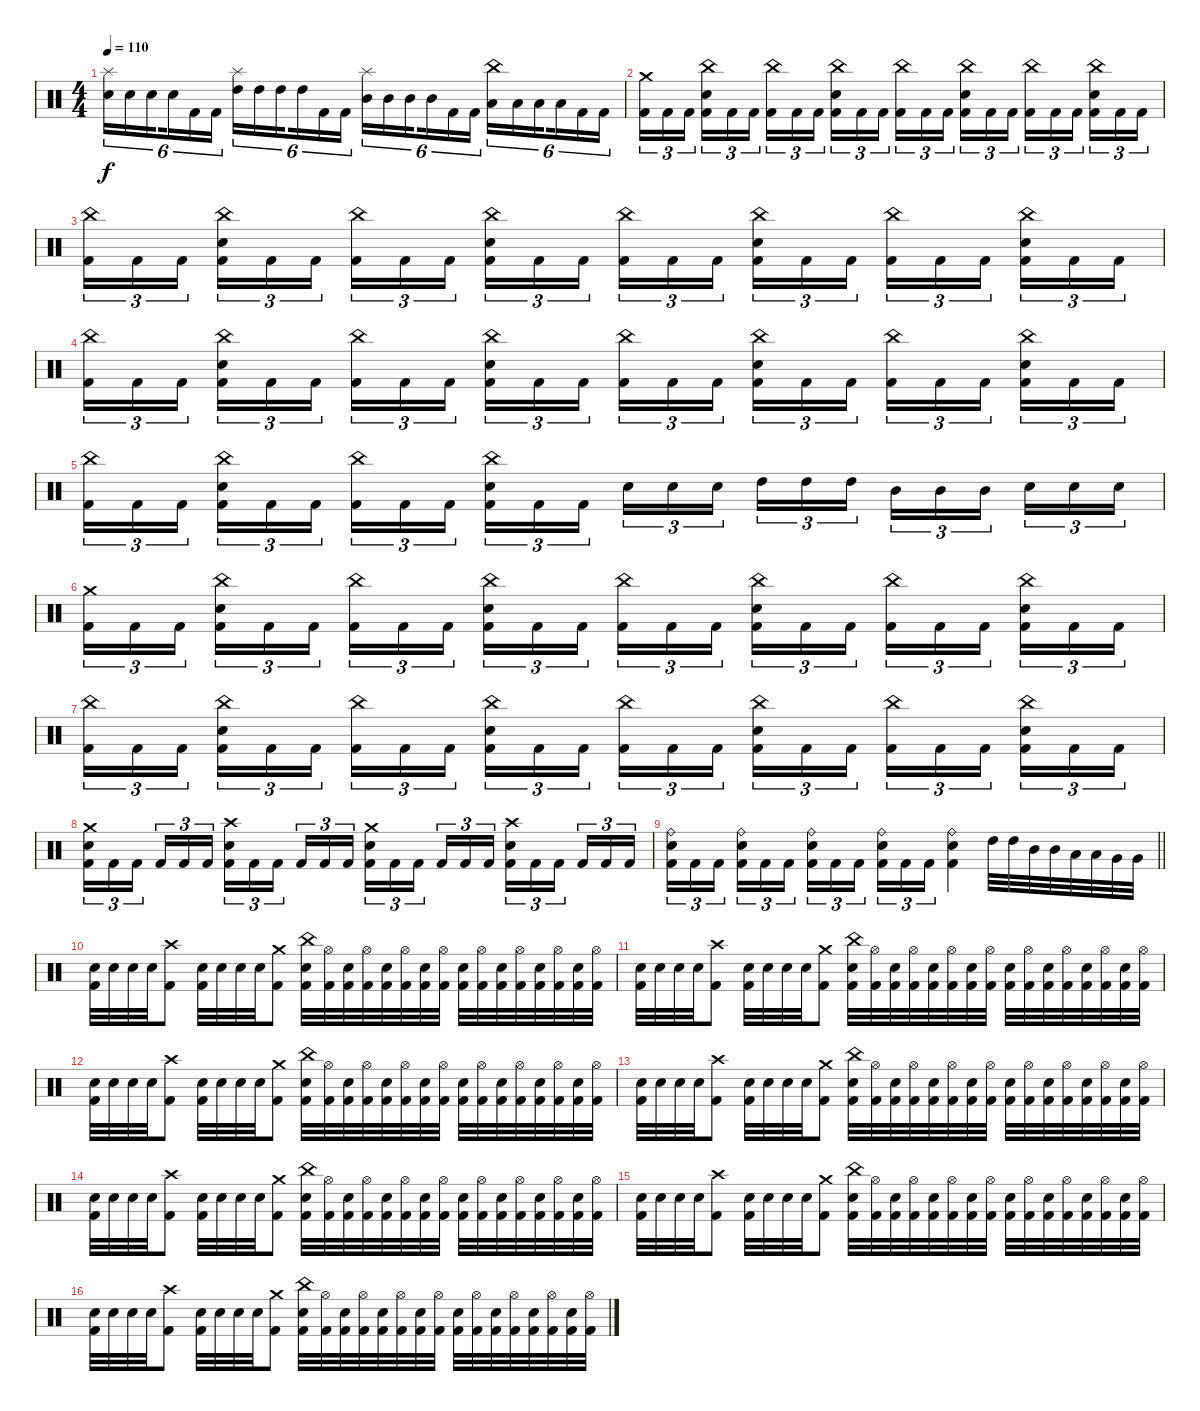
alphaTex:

\track "" {instrument percussion}
\staff {score}
\articulation defaults
\ts (4 4)
\tempo 110
\clef neutral
\ks c
("Electric Snare (hit)" "Splash (hit)").16{tu (6 4) dy f} "Electric Snare (hit)".16{tu (6 4)} "Electric Snare (hit)".16{tu (6 4) beam splitsecondary} "Electric Snare (hit)".16{tu (6 4)} "Kick (hit) 2".16{tu (6 4)} "Kick (hit) 2".16{tu (6 4)} ("High Tom (hit)" "Splash (hit)").16{tu (6 4)} "High Tom (hit)".16{tu (6 4)} "High Tom (hit)".16{tu (6 4) beam splitsecondary} "High Tom (hit)".16{tu (6 4)} "Kick (hit) 2".16{tu (6 4)} "Kick (hit) 2".16{tu (6 4)} ("Mid Tom (hit)" "Splash (hit)").16{tu (6 4)} "Mid Tom (hit)".16{tu (6 4)} "Mid Tom (hit)".16{tu (6 4) beam splitsecondary} "Mid Tom (hit)".16{tu (6 4)} "Kick (hit) 2".16{tu (6 4)} "Kick (hit) 2".16{tu (6 4)} ("Low Tom (hit)" "China (hit)").16{tu (6 4)} "Low Tom (hit)".16{tu (6 4)} "Low Tom (hit)".16{tu (6 4) beam splitsecondary} "Low Tom (hit)".16{tu (6 4)} "Kick (hit) 2".16{tu (6 4)} "Kick (hit) 2".16{tu (6 4)} |
("Crash medium (hit)" "Kick (hit) 2").16{tu (3 2)} "Kick (hit) 2".16{tu (3 2)} "Kick (hit) 2".16{tu (3 2) beam splitsecondary} ("China (hit)" "Electric Snare (hit)" "Kick (hit) 2").16{tu (3 2)} "Kick (hit) 2".16{tu (3 2)} "Kick (hit) 2".16{tu (3 2)} ("China (hit)" "Kick (hit) 2").16{tu (3 2)} "Kick (hit) 2".16{tu (3 2)} "Kick (hit) 2".16{tu (3 2) beam splitsecondary} ("China (hit)" "Electric Snare (hit)" "Kick (hit) 2").16{tu (3 2)} "Kick (hit) 2".16{tu (3 2)} "Kick (hit) 2".16{tu (3 2)} ("China (hit)" "Kick (hit) 2").16{tu (3 2)} "Kick (hit) 2".16{tu (3 2)} "Kick (hit) 2".16{tu (3 2) beam splitsecondary} ("China (hit)" "Electric Snare (hit)" "Kick (hit) 2").16{tu (3 2)} "Kick (hit) 2".16{tu (3 2)} "Kick (hit) 2".16{tu (3 2)} ("China (hit)" "Kick (hit) 2").16{tu (3 2)} "Kick (hit) 2".16{tu (3 2)} "Kick (hit) 2".16{tu (3 2) beam splitsecondary} ("China (hit)" "Electric Snare (hit)" "Kick (hit) 2").16{tu (3 2)} "Kick (hit) 2".16{tu (3 2)} "Kick (hit) 2".16{tu (3 2)} |
("China (hit)" "Kick (hit) 2").16{tu (3 2)} "Kick (hit) 2".16{tu (3 2)} "Kick (hit) 2".16{tu (3 2) beam splitsecondary} ("China (hit)" "Electric Snare (hit)" "Kick (hit) 2").16{tu (3 2)} "Kick (hit) 2".16{tu (3 2)} "Kick (hit) 2".16{tu (3 2)} ("China (hit)" "Kick (hit) 2").16{tu (3 2)} "Kick (hit) 2".16{tu (3 2)} "Kick (hit) 2".16{tu (3 2) beam splitsecondary} ("China (hit)" "Electric Snare (hit)" "Kick (hit) 2").16{tu (3 2)} "Kick (hit) 2".16{tu (3 2)} "Kick (hit) 2".16{tu (3 2)} ("China (hit)" "Kick (hit) 2").16{tu (3 2)} "Kick (hit) 2".16{tu (3 2)} "Kick (hit) 2".16{tu (3 2) beam splitsecondary} ("China (hit)" "Electric Snare (hit)" "Kick (hit) 2").16{tu (3 2)} "Kick (hit) 2".16{tu (3 2)} "Kick (hit) 2".16{tu (3 2)} ("China (hit)" "Kick (hit) 2").16{tu (3 2)} "Kick (hit) 2".16{tu (3 2)} "Kick (hit) 2".16{tu (3 2) beam splitsecondary} ("China (hit)" "Electric Snare (hit)" "Kick (hit) 2").16{tu (3 2)} "Kick (hit) 2".16{tu (3 2)} "Kick (hit) 2".16{tu (3 2)} |
("China (hit)" "Kick (hit) 2").16{tu (3 2)} "Kick (hit) 2".16{tu (3 2)} "Kick (hit) 2".16{tu (3 2) beam splitsecondary} ("China (hit)" "Electric Snare (hit)" "Kick (hit) 2").16{tu (3 2)} "Kick (hit) 2".16{tu (3 2)} "Kick (hit) 2".16{tu (3 2)} ("China (hit)" "Kick (hit) 2").16{tu (3 2)} "Kick (hit) 2".16{tu (3 2)} "Kick (hit) 2".16{tu (3 2) beam splitsecondary} ("China (hit)" "Electric Snare (hit)" "Kick (hit) 2").16{tu (3 2)} "Kick (hit) 2".16{tu (3 2)} "Kick (hit) 2".16{tu (3 2)} ("China (hit)" "Kick (hit) 2").16{tu (3 2)} "Kick (hit) 2".16{tu (3 2)} "Kick (hit) 2".16{tu (3 2) beam splitsecondary} ("China (hit)" "Electric Snare (hit)" "Kick (hit) 2").16{tu (3 2)} "Kick (hit) 2".16{tu (3 2)} "Kick (hit) 2".16{tu (3 2)} ("China (hit)" "Kick (hit) 2").16{tu (3 2)} "Kick (hit) 2".16{tu (3 2)} "Kick (hit) 2".16{tu (3 2) beam splitsecondary} ("China (hit)" "Electric Snare (hit)" "Kick (hit) 2").16{tu (3 2)} "Kick (hit) 2".16{tu (3 2)} "Kick (hit) 2".16{tu (3 2)} |
("China (hit)" "Kick (hit) 2").16{tu (3 2)} "Kick (hit) 2".16{tu (3 2)} "Kick (hit) 2".16{tu (3 2) beam splitsecondary} ("China (hit)" "Electric Snare (hit)" "Kick (hit) 2").16{tu (3 2)} "Kick (hit) 2".16{tu (3 2)} "Kick (hit) 2".16{tu (3 2)} ("China (hit)" "Kick (hit) 2").16{tu (3 2)} "Kick (hit) 2".16{tu (3 2)} "Kick (hit) 2".16{tu (3 2) beam splitsecondary} ("China (hit)" "Electric Snare (hit)" "Kick (hit) 2").16{tu (3 2)} "Kick (hit) 2".16{tu (3 2)} "Kick (hit) 2".16{tu (3 2)} "Electric Snare (hit)".16{tu (3 2)} "Electric Snare (hit)".16{tu (3 2)} "Electric Snare (hit)".16{tu (3 2) beam splitsecondary} "High Tom (hit)".16{tu (3 2)} "High Tom (hit)".16{tu (3 2)} "High Tom (hit)".16{tu (3 2)} "Mid Tom (hit)".16{tu (3 2)} "Mid Tom (hit)".16{tu (3 2)} "Mid Tom (hit)".16{tu (3 2) beam splitsecondary} "Electric Snare (hit)".16{tu (3 2)} "Electric Snare (hit)".16{tu (3 2)} "Electric Snare (hit)".16{tu (3 2)} |
("Crash medium (hit)" "Kick (hit) 2").16{tu (3 2)} "Kick (hit) 2".16{tu (3 2)} "Kick (hit) 2".16{tu (3 2) beam splitsecondary} ("China (hit)" "Electric Snare (hit)" "Kick (hit) 2").16{tu (3 2)} "Kick (hit) 2".16{tu (3 2)} "Kick (hit) 2".16{tu (3 2)} ("China (hit)" "Kick (hit) 2").16{tu (3 2)} "Kick (hit) 2".16{tu (3 2)} "Kick (hit) 2".16{tu (3 2) beam splitsecondary} ("China (hit)" "Electric Snare (hit)" "Kick (hit) 2").16{tu (3 2)} "Kick (hit) 2".16{tu (3 2)} "Kick (hit) 2".16{tu (3 2)} ("China (hit)" "Kick (hit) 2").16{tu (3 2)} "Kick (hit) 2".16{tu (3 2)} "Kick (hit) 2".16{tu (3 2) beam splitsecondary} ("China (hit)" "Electric Snare (hit)" "Kick (hit) 2").16{tu (3 2)} "Kick (hit) 2".16{tu (3 2)} "Kick (hit) 2".16{tu (3 2)} ("China (hit)" "Kick (hit) 2").16{tu (3 2)} "Kick (hit) 2".16{tu (3 2)} "Kick (hit) 2".16{tu (3 2) beam splitsecondary} ("China (hit)" "Electric Snare (hit)" "Kick (hit) 2").16{tu (3 2)} "Kick (hit) 2".16{tu (3 2)} "Kick (hit) 2".16{tu (3 2)} |
("China (hit)" "Kick (hit) 2").16{tu (3 2)} "Kick (hit) 2".16{tu (3 2)} "Kick (hit) 2".16{tu (3 2) beam splitsecondary} ("China (hit)" "Electric Snare (hit)" "Kick (hit) 2").16{tu (3 2)} "Kick (hit) 2".16{tu (3 2)} "Kick (hit) 2".16{tu (3 2)} ("China (hit)" "Kick (hit) 2").16{tu (3 2)} "Kick (hit) 2".16{tu (3 2)} "Kick (hit) 2".16{tu (3 2) beam splitsecondary} ("China (hit)" "Electric Snare (hit)" "Kick (hit) 2").16{tu (3 2)} "Kick (hit) 2".16{tu (3 2)} "Kick (hit) 2".16{tu (3 2)} ("China (hit)" "Kick (hit) 2").16{tu (3 2)} "Kick (hit) 2".16{tu (3 2)} "Kick (hit) 2".16{tu (3 2) beam splitsecondary} ("China (hit)" "Electric Snare (hit)" "Kick (hit) 2").16{tu (3 2)} "Kick (hit) 2".16{tu (3 2)} "Kick (hit) 2".16{tu (3 2)} ("China (hit)" "Kick (hit) 2").16{tu (3 2)} "Kick (hit) 2".16{tu (3 2)} "Kick (hit) 2".16{tu (3 2) beam splitsecondary} ("China (hit)" "Electric Snare (hit)" "Kick (hit) 2").16{tu (3 2)} "Kick (hit) 2".16{tu (3 2)} "Kick (hit) 2".16{tu (3 2)} |
("Crash medium (hit)" "Electric Snare (hit)" "Kick (hit) 2").16{tu (3 2)} "Kick (hit) 2".16{tu (3 2)} "Kick (hit) 2".16{tu (3 2) beam splitsecondary} "Kick (hit) 2".16{tu (3 2)} "Kick (hit) 2".16{tu (3 2)} "Kick (hit) 2".16{tu (3 2)} ("Crash high (hit)" "Electric Snare (hit)" "Kick (hit) 2").16{tu (3 2)} "Kick (hit) 2".16{tu (3 2)} "Kick (hit) 2".16{tu (3 2) beam splitsecondary} "Kick (hit) 2".16{tu (3 2)} "Kick (hit) 2".16{tu (3 2)} "Kick (hit) 2".16{tu (3 2)} ("Crash medium (hit)" "Electric Snare (hit)" "Kick (hit) 2").16{tu (3 2)} "Kick (hit) 2".16{tu (3 2)} "Kick (hit) 2".16{tu (3 2) beam splitsecondary} "Kick (hit) 2".16{tu (3 2)} "Kick (hit) 2".16{tu (3 2)} "Kick (hit) 2".16{tu (3 2)} ("Crash high (hit)" "Electric Snare (hit)" "Kick (hit) 2").16{tu (3 2)} "Kick (hit) 2".16{tu (3 2)} "Kick (hit) 2".16{tu (3 2) beam splitsecondary} "Kick (hit) 2".16{tu (3 2)} "Kick (hit) 2".16{tu (3 2)} "Kick (hit) 2".16{tu (3 2)} |
\barLineRight lightlight
("Ride (bell)" "Electric Snare (hit)" "Kick (hit) 2").16{tu (3 2)} "Kick (hit) 2".16{tu (3 2)} "Kick (hit) 2".16{tu (3 2) beam splitsecondary} ("Ride (bell)" "Electric Snare (hit)" "Kick (hit) 2").16{tu (3 2)} "Kick (hit) 2".16{tu (3 2)} "Kick (hit) 2".16{tu (3 2)} ("Ride (bell)" "Electric Snare (hit)" "Kick (hit) 2").16{tu (3 2)} "Kick (hit) 2".16{tu (3 2)} "Kick (hit) 2".16{tu (3 2) beam splitsecondary} ("Ride (bell)" "Electric Snare (hit)" "Kick (hit) 2").16{tu (3 2)} "Kick (hit) 2".16{tu (3 2)} "Kick (hit) 2".16{tu (3 2)} ("Ride (bell)" "Electric Snare (hit)" "Kick (hit) 2").4 "High Tom (hit)".32 "High Tom (hit)".32 "Mid Tom (hit)".32 "Mid Tom (hit)".32 "Low Tom (hit)".32 "Low Tom (hit)".32 "Very Low Tom (hit)".32 "Very Low Tom (hit)".32 |
("Electric Snare (hit)" "Kick (hit) 2").32 "Electric Snare (hit)".32 "Electric Snare (hit)".32 "Electric Snare (hit)".32 ("Crash high (hit)" "Kick (hit) 2").8 ("Electric Snare (hit)" "Kick (hit) 2").32 "Electric Snare (hit)".32 "Electric Snare (hit)".32 "Electric Snare (hit)".32 ("Crash medium (hit)" "Kick (hit) 2").8 ("China (hit)" "Electric Snare (hit)" "Kick (hit) 2").32 ("Hi-Hat (open)" "Kick (hit) 2").32 ("Electric Snare (hit)" "Kick (hit) 2").32 ("Hi-Hat (open)" "Kick (hit) 2").32 ("Electric Snare (hit)" "Kick (hit) 2").32 ("Hi-Hat (open)" "Kick (hit) 2").32 ("Electric Snare (hit)" "Kick (hit) 2").32 ("Hi-Hat (open)" "Kick (hit) 2").32 ("Electric Snare (hit)" "Kick (hit) 2").32 ("Hi-Hat (open)" "Kick (hit) 2").32 ("Electric Snare (hit)" "Kick (hit) 2").32 ("Hi-Hat (open)" "Kick (hit) 2").32 ("Electric Snare (hit)" "Kick (hit) 2").32 ("Hi-Hat (open)" "Kick (hit) 2").32 ("Electric Snare (hit)" "Kick (hit) 2").32 ("Hi-Hat (open)" "Kick (hit) 2").32 |
("Electric Snare (hit)" "Kick (hit) 2").32 "Electric Snare (hit)".32 "Electric Snare (hit)".32 "Electric Snare (hit)".32 ("Crash high (hit)" "Kick (hit) 2").8 ("Electric Snare (hit)" "Kick (hit) 2").32 "Electric Snare (hit)".32 "Electric Snare (hit)".32 "Electric Snare (hit)".32 ("Crash medium (hit)" "Kick (hit) 2").8 ("China (hit)" "Electric Snare (hit)" "Kick (hit) 2").32 ("Hi-Hat (open)" "Kick (hit) 2").32 ("Electric Snare (hit)" "Kick (hit) 2").32 ("Hi-Hat (open)" "Kick (hit) 2").32 ("Electric Snare (hit)" "Kick (hit) 2").32 ("Hi-Hat (open)" "Kick (hit) 2").32 ("Electric Snare (hit)" "Kick (hit) 2").32 ("Hi-Hat (open)" "Kick (hit) 2").32 ("Electric Snare (hit)" "Kick (hit) 2").32 ("Hi-Hat (open)" "Kick (hit) 2").32 ("Electric Snare (hit)" "Kick (hit) 2").32 ("Hi-Hat (open)" "Kick (hit) 2").32 ("Electric Snare (hit)" "Kick (hit) 2").32 ("Hi-Hat (open)" "Kick (hit) 2").32 ("Electric Snare (hit)" "Kick (hit) 2").32 ("Hi-Hat (open)" "Kick (hit) 2").32 |
("Electric Snare (hit)" "Kick (hit) 2").32 "Electric Snare (hit)".32 "Electric Snare (hit)".32 "Electric Snare (hit)".32 ("Crash high (hit)" "Kick (hit) 2").8 ("Electric Snare (hit)" "Kick (hit) 2").32 "Electric Snare (hit)".32 "Electric Snare (hit)".32 "Electric Snare (hit)".32 ("Crash medium (hit)" "Kick (hit) 2").8 ("China (hit)" "Electric Snare (hit)" "Kick (hit) 2").32 ("Hi-Hat (open)" "Kick (hit) 2").32 ("Electric Snare (hit)" "Kick (hit) 2").32 ("Hi-Hat (open)" "Kick (hit) 2").32 ("Electric Snare (hit)" "Kick (hit) 2").32 ("Hi-Hat (open)" "Kick (hit) 2").32 ("Electric Snare (hit)" "Kick (hit) 2").32 ("Hi-Hat (open)" "Kick (hit) 2").32 ("Electric Snare (hit)" "Kick (hit) 2").32 ("Hi-Hat (open)" "Kick (hit) 2").32 ("Electric Snare (hit)" "Kick (hit) 2").32 ("Hi-Hat (open)" "Kick (hit) 2").32 ("Electric Snare (hit)" "Kick (hit) 2").32 ("Hi-Hat (open)" "Kick (hit) 2").32 ("Electric Snare (hit)" "Kick (hit) 2").32 ("Hi-Hat (open)" "Kick (hit) 2").32 |
("Electric Snare (hit)" "Kick (hit) 2").32 "Electric Snare (hit)".32 "Electric Snare (hit)".32 "Electric Snare (hit)".32 ("Crash high (hit)" "Kick (hit) 2").8 ("Electric Snare (hit)" "Kick (hit) 2").32 "Electric Snare (hit)".32 "Electric Snare (hit)".32 "Electric Snare (hit)".32 ("Crash medium (hit)" "Kick (hit) 2").8 ("China (hit)" "Electric Snare (hit)" "Kick (hit) 2").32 ("Hi-Hat (open)" "Kick (hit) 2").32 ("Electric Snare (hit)" "Kick (hit) 2").32 ("Hi-Hat (open)" "Kick (hit) 2").32 ("Electric Snare (hit)" "Kick (hit) 2").32 ("Hi-Hat (open)" "Kick (hit) 2").32 ("Electric Snare (hit)" "Kick (hit) 2").32 ("Hi-Hat (open)" "Kick (hit) 2").32 ("Electric Snare (hit)" "Kick (hit) 2").32 ("Hi-Hat (open)" "Kick (hit) 2").32 ("Electric Snare (hit)" "Kick (hit) 2").32 ("Hi-Hat (open)" "Kick (hit) 2").32 ("Electric Snare (hit)" "Kick (hit) 2").32 ("Hi-Hat (open)" "Kick (hit) 2").32 ("Electric Snare (hit)" "Kick (hit) 2").32 ("Hi-Hat (open)" "Kick (hit) 2").32 |
("Electric Snare (hit)" "Kick (hit) 2").32 "Electric Snare (hit)".32 "Electric Snare (hit)".32 "Electric Snare (hit)".32 ("Crash high (hit)" "Kick (hit) 2").8 ("Electric Snare (hit)" "Kick (hit) 2").32 "Electric Snare (hit)".32 "Electric Snare (hit)".32 "Electric Snare (hit)".32 ("Crash medium (hit)" "Kick (hit) 2").8 ("China (hit)" "Electric Snare (hit)" "Kick (hit) 2").32 ("Hi-Hat (open)" "Kick (hit) 2").32 ("Electric Snare (hit)" "Kick (hit) 2").32 ("Hi-Hat (open)" "Kick (hit) 2").32 ("Electric Snare (hit)" "Kick (hit) 2").32 ("Hi-Hat (open)" "Kick (hit) 2").32 ("Electric Snare (hit)" "Kick (hit) 2").32 ("Hi-Hat (open)" "Kick (hit) 2").32 ("Electric Snare (hit)" "Kick (hit) 2").32 ("Hi-Hat (open)" "Kick (hit) 2").32 ("Electric Snare (hit)" "Kick (hit) 2").32 ("Hi-Hat (open)" "Kick (hit) 2").32 ("Electric Snare (hit)" "Kick (hit) 2").32 ("Hi-Hat (open)" "Kick (hit) 2").32 ("Electric Snare (hit)" "Kick (hit) 2").32 ("Hi-Hat (open)" "Kick (hit) 2").32 |
("Electric Snare (hit)" "Kick (hit) 2").32 "Electric Snare (hit)".32 "Electric Snare (hit)".32 "Electric Snare (hit)".32 ("Crash high (hit)" "Kick (hit) 2").8 ("Electric Snare (hit)" "Kick (hit) 2").32 "Electric Snare (hit)".32 "Electric Snare (hit)".32 "Electric Snare (hit)".32 ("Crash medium (hit)" "Kick (hit) 2").8 ("China (hit)" "Electric Snare (hit)" "Kick (hit) 2").32 ("Hi-Hat (open)" "Kick (hit) 2").32 ("Electric Snare (hit)" "Kick (hit) 2").32 ("Hi-Hat (open)" "Kick (hit) 2").32 ("Electric Snare (hit)" "Kick (hit) 2").32 ("Hi-Hat (open)" "Kick (hit) 2").32 ("Electric Snare (hit)" "Kick (hit) 2").32 ("Hi-Hat (open)" "Kick (hit) 2").32 ("Electric Snare (hit)" "Kick (hit) 2").32 ("Hi-Hat (open)" "Kick (hit) 2").32 ("Electric Snare (hit)" "Kick (hit) 2").32 ("Hi-Hat (open)" "Kick (hit) 2").32 ("Electric Snare (hit)" "Kick (hit) 2").32 ("Hi-Hat (open)" "Kick (hit) 2").32 ("Electric Snare (hit)" "Kick (hit) 2").32 ("Hi-Hat (open)" "Kick (hit) 2").32 |
("Electric Snare (hit)" "Kick (hit) 2").32 "Electric Snare (hit)".32 "Electric Snare (hit)".32 "Electric Snare (hit)".32 ("Crash high (hit)" "Kick (hit) 2").8 ("Electric Snare (hit)" "Kick (hit) 2").32 "Electric Snare (hit)".32 "Electric Snare (hit)".32 "Electric Snare (hit)".32 ("Crash medium (hit)" "Kick (hit) 2").8 ("China (hit)" "Electric Snare (hit)" "Kick (hit) 2").32 ("Hi-Hat (open)" "Kick (hit) 2").32 ("Electric Snare (hit)" "Kick (hit) 2").32 ("Hi-Hat (open)" "Kick (hit) 2").32 ("Electric Snare (hit)" "Kick (hit) 2").32 ("Hi-Hat (open)" "Kick (hit) 2").32 ("Electric Snare (hit)" "Kick (hit) 2").32 ("Hi-Hat (open)" "Kick (hit) 2").32 ("Electric Snare (hit)" "Kick (hit) 2").32 ("Hi-Hat (open)" "Kick (hit) 2").32 ("Electric Snare (hit)" "Kick (hit) 2").32 ("Hi-Hat (open)" "Kick (hit) 2").32 ("Electric Snare (hit)" "Kick (hit) 2").32 ("Hi-Hat (open)" "Kick (hit) 2").32 ("Electric Snare (hit)" "Kick (hit) 2").32 ("Hi-Hat (open)" "Kick (hit) 2").32
